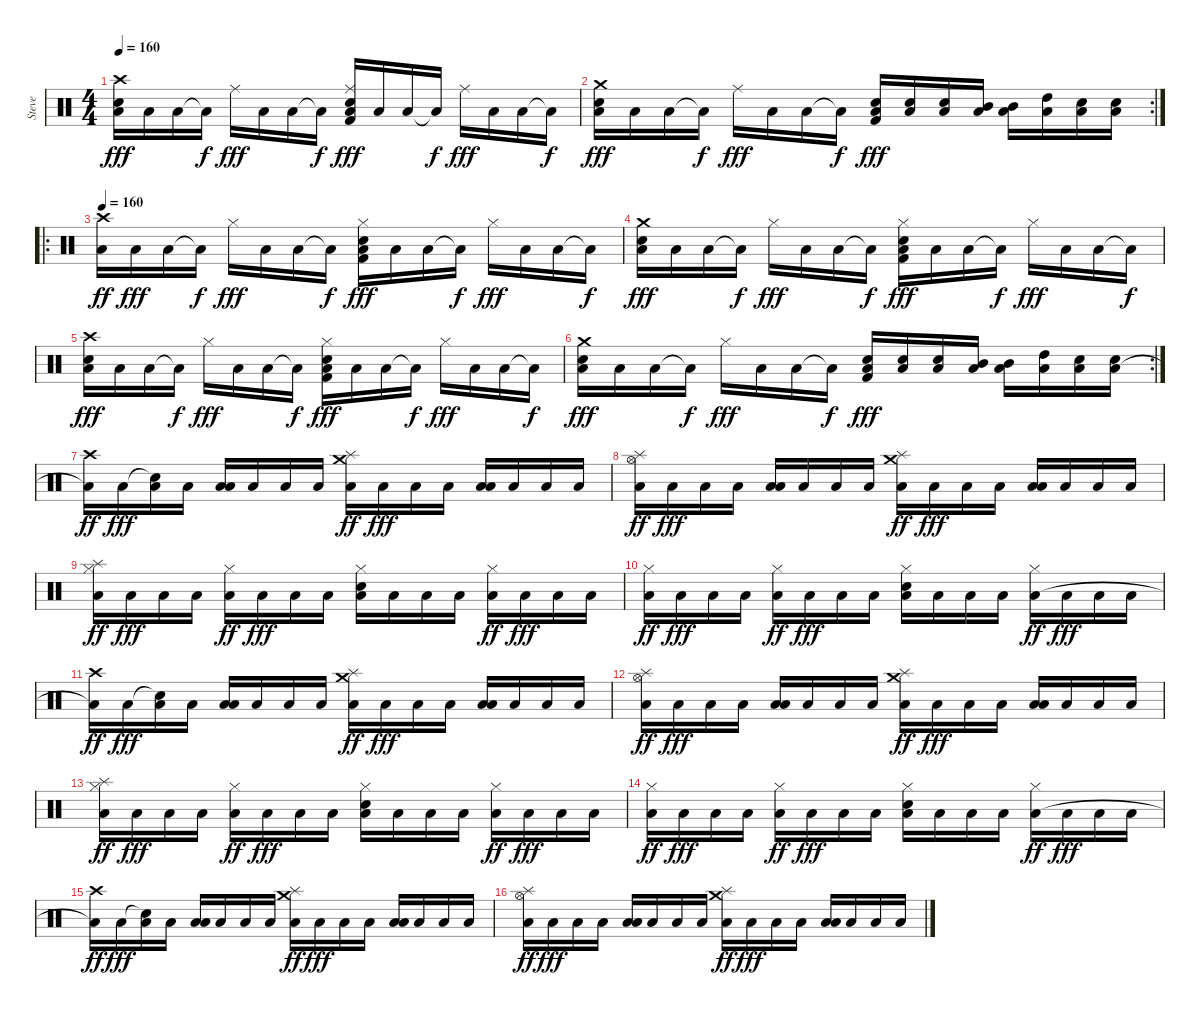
\track ("Steve" "Steve") {instrument percussion}
\staff {score}
\articulation defaults
\ts (4 4)
\tempo 160
\clef neutral
\ks c
("Crash high (hit)" "Electric Snare (hit)" "Low Floor Tom (hit)").16{dy fff} "Low Floor Tom (hit)".16 "Low Floor Tom (hit)".16 "Low Floor Tom (hit)"{t}.16{dy f} "Ride (middle)".16{dy fff} "Low Floor Tom (hit)".16 "Low Floor Tom (hit)".16 "Low Floor Tom (hit)"{t}.16{dy f} ("Electric Snare (hit)" "Kick (hit) 2" "Ride (middle)" "Low Floor Tom (hit)").16{dy fff} "Low Floor Tom (hit)".16 "Low Floor Tom (hit)".16 "Low Floor Tom (hit)"{t}.16{dy f} "Ride (middle)".16{dy fff} "Low Floor Tom (hit)".16 "Low Floor Tom (hit)".16 "Low Floor Tom (hit)"{t}.16{dy f} |
\rc 2
("Crash medium (hit)" "Electric Snare (hit)" "Low Floor Tom (hit)").16{dy fff} "Low Floor Tom (hit)".16 "Low Floor Tom (hit)".16 "Low Floor Tom (hit)"{t}.16{dy f} "Ride (middle)".16{dy fff} "Low Floor Tom (hit)".16 "Low Floor Tom (hit)".16 "Low Floor Tom (hit)"{t}.16{dy f} ("Electric Snare (hit)" "Kick (hit) 2" "Low Floor Tom (hit)").16{dy fff} ("Electric Snare (hit)" "Low Floor Tom (hit)").16 ("Electric Snare (hit)" "Low Floor Tom (hit)").16 ("Mid Tom (hit)" "Low Floor Tom (hit)").16 ("Mid Tom (hit)" "Low Floor Tom (hit)").16 ("High Tom (hit)" "Low Floor Tom (hit)").16 ("Electric Snare (hit)" "Low Floor Tom (hit)").16 ("Electric Snare (hit)" "Low Floor Tom (hit)").16 |
\ro
\tempo 160
("Crash high (hit)" "Low Floor Tom (hit)").16{dy ff} "Low Floor Tom (hit)".16{dy fff} "Low Floor Tom (hit)".16 "Low Floor Tom (hit)"{t}.16{dy f} "Hi-Hat (closed)".16{dy fff} "Low Floor Tom (hit)".16 "Low Floor Tom (hit)".16 "Low Floor Tom (hit)"{t}.16{dy f} ("Electric Snare (hit)" "Kick (hit) 2" "Hi-Hat (closed)" "Low Floor Tom (hit)").16{dy fff} "Low Floor Tom (hit)".16 "Low Floor Tom (hit)".16 "Low Floor Tom (hit)"{t}.16{dy f} "Hi-Hat (closed)".16{dy fff} "Low Floor Tom (hit)".16 "Low Floor Tom (hit)".16 "Low Floor Tom (hit)"{t}.16{dy f} |
("Crash medium (hit)" "Electric Snare (hit)" "Low Floor Tom (hit)").16{dy fff} "Low Floor Tom (hit)".16 "Low Floor Tom (hit)".16 "Low Floor Tom (hit)"{t}.16{dy f} "Hi-Hat (closed)".16{dy fff} "Low Floor Tom (hit)".16 "Low Floor Tom (hit)".16 "Low Floor Tom (hit)"{t}.16{dy f} ("Electric Snare (hit)" "Kick (hit) 2" "Hi-Hat (closed)" "Low Floor Tom (hit)").16{dy fff} "Low Floor Tom (hit)".16 "Low Floor Tom (hit)".16 "Low Floor Tom (hit)"{t}.16{dy f} "Hi-Hat (closed)".16{dy fff} "Low Floor Tom (hit)".16 "Low Floor Tom (hit)".16 "Low Floor Tom (hit)"{t}.16{dy f} |
("Crash high (hit)" "Electric Snare (hit)" "Low Floor Tom (hit)").16{dy fff} "Low Floor Tom (hit)".16 "Low Floor Tom (hit)".16 "Low Floor Tom (hit)"{t}.16{dy f} "Hi-Hat (closed)".16{dy fff} "Low Floor Tom (hit)".16 "Low Floor Tom (hit)".16 "Low Floor Tom (hit)"{t}.16{dy f} ("Electric Snare (hit)" "Kick (hit) 2" "Hi-Hat (closed)" "Low Floor Tom (hit)").16{dy fff} "Low Floor Tom (hit)".16 "Low Floor Tom (hit)".16 "Low Floor Tom (hit)"{t}.16{dy f} "Hi-Hat (closed)".16{dy fff} "Low Floor Tom (hit)".16 "Low Floor Tom (hit)".16 "Low Floor Tom (hit)"{t}.16{dy f} |
\rc 2
("Crash medium (hit)" "Electric Snare (hit)" "Low Floor Tom (hit)").16{dy fff} "Low Floor Tom (hit)".16 "Low Floor Tom (hit)".16 "Low Floor Tom (hit)"{t}.16{dy f} "Hi-Hat (closed)".16{dy fff} "Low Floor Tom (hit)".16 "Low Floor Tom (hit)".16 "Low Floor Tom (hit)"{t}.16{dy f} ("Electric Snare (hit)" "Kick (hit) 2" "Low Floor Tom (hit)").16{dy fff} ("Electric Snare (hit)" "Low Floor Tom (hit)").16 ("Electric Snare (hit)" "Low Floor Tom (hit)").16 ("Mid Tom (hit)" "Low Floor Tom (hit)").16 ("Mid Tom (hit)" "Low Floor Tom (hit)").16 ("High Tom (hit)" "Low Floor Tom (hit)").16 ("Electric Snare (hit)" "Low Floor Tom (hit)").16 ("Electric Snare (hit)" "Low Floor Tom (hit)").16 |
("Crash high (hit)" "Low Floor Tom (hit)"{t}).16{dy ff} "Low Floor Tom (hit)".16{dy fff} ("Snare (hit)"{t} "Low Floor Tom (hit)").16 "Low Floor Tom (hit)".16 ("Low Tom (hit)" "Low Floor Tom (hit)").16 "Low Floor Tom (hit)".16 "Low Floor Tom (hit)".16 "Low Floor Tom (hit)".16 ("Crash medium (hit)" "Splash (hit)" "Low Floor Tom (hit)").16{dy ff} "Low Floor Tom (hit)".16{dy fff} "Low Floor Tom (hit)".16 "Low Floor Tom (hit)".16 ("Low Tom (hit)" "Low Floor Tom (hit)").16 "Low Floor Tom (hit)".16 "Low Floor Tom (hit)".16 "Low Floor Tom (hit)".16 |
("Splash (hit)" "Hi-Hat (open)" "Low Floor Tom (hit)").16{dy ff} "Low Floor Tom (hit)".16{dy fff} "Low Floor Tom (hit)".16 "Low Floor Tom (hit)".16 ("Low Tom (hit)" "Low Floor Tom (hit)").16 "Low Floor Tom (hit)".16 "Low Floor Tom (hit)".16 "Low Floor Tom (hit)".16 ("Crash medium (hit)" "Splash (hit)" "Low Floor Tom (hit)").16{dy ff} "Low Floor Tom (hit)".16{dy fff} "Low Floor Tom (hit)".16 "Low Floor Tom (hit)".16 ("Low Tom (hit)" "Low Floor Tom (hit)").16 "Low Floor Tom (hit)".16 "Low Floor Tom (hit)".16 "Low Floor Tom (hit)".16 |
("Splash (hit)" "Hi-Hat (closed)" "Low Floor Tom (hit)").16{dy ff} "Low Floor Tom (hit)".16{dy fff} "Low Floor Tom (hit)".16 "Low Floor Tom (hit)".16 ("Hi-Hat (closed)" "Low Floor Tom (hit)").16{dy ff} "Low Floor Tom (hit)".16{dy fff} "Low Floor Tom (hit)".16 "Low Floor Tom (hit)".16 ("Electric Snare (hit)" "Hi-Hat (closed)" "Low Floor Tom (hit)").16 "Low Floor Tom (hit)".16 "Low Floor Tom (hit)".16 "Low Floor Tom (hit)".16 ("Hi-Hat (closed)" "Low Floor Tom (hit)").16{dy ff} "Low Floor Tom (hit)".16{dy fff} "Low Floor Tom (hit)".16 "Low Floor Tom (hit)".16 |
("Hi-Hat (closed)" "Low Floor Tom (hit)").16{dy ff} "Low Floor Tom (hit)".16{dy fff} "Low Floor Tom (hit)".16 "Low Floor Tom (hit)".16 ("Hi-Hat (closed)" "Low Floor Tom (hit)").16{dy ff} "Low Floor Tom (hit)".16{dy fff} "Low Floor Tom (hit)".16 "Low Floor Tom (hit)".16 ("Electric Snare (hit)" "Hi-Hat (closed)" "Low Floor Tom (hit)").16 "Low Floor Tom (hit)".16 "Low Floor Tom (hit)".16 "Low Floor Tom (hit)".16 ("Hi-Hat (closed)" "Low Floor Tom (hit)").16{dy ff} "Low Floor Tom (hit)".16{dy fff} "Low Floor Tom (hit)".16 "Low Floor Tom (hit)".16 |
("Crash high (hit)" "Low Floor Tom (hit)"{t}).16{dy ff} "Low Floor Tom (hit)".16{dy fff} ("Snare (hit)"{t} "Low Floor Tom (hit)").16 "Low Floor Tom (hit)".16 ("Low Tom (hit)" "Low Floor Tom (hit)").16 "Low Floor Tom (hit)".16 "Low Floor Tom (hit)".16 "Low Floor Tom (hit)".16 ("Crash medium (hit)" "Splash (hit)" "Low Floor Tom (hit)").16{dy ff} "Low Floor Tom (hit)".16{dy fff} "Low Floor Tom (hit)".16 "Low Floor Tom (hit)".16 ("Low Tom (hit)" "Low Floor Tom (hit)").16 "Low Floor Tom (hit)".16 "Low Floor Tom (hit)".16 "Low Floor Tom (hit)".16 |
("Splash (hit)" "Hi-Hat (open)" "Low Floor Tom (hit)").16{dy ff} "Low Floor Tom (hit)".16{dy fff} "Low Floor Tom (hit)".16 "Low Floor Tom (hit)".16 ("Low Tom (hit)" "Low Floor Tom (hit)").16 "Low Floor Tom (hit)".16 "Low Floor Tom (hit)".16 "Low Floor Tom (hit)".16 ("Crash medium (hit)" "Splash (hit)" "Low Floor Tom (hit)").16{dy ff} "Low Floor Tom (hit)".16{dy fff} "Low Floor Tom (hit)".16 "Low Floor Tom (hit)".16 ("Low Tom (hit)" "Low Floor Tom (hit)").16 "Low Floor Tom (hit)".16 "Low Floor Tom (hit)".16 "Low Floor Tom (hit)".16 |
("Splash (hit)" "Hi-Hat (closed)" "Low Floor Tom (hit)").16{dy ff} "Low Floor Tom (hit)".16{dy fff} "Low Floor Tom (hit)".16 "Low Floor Tom (hit)".16 ("Hi-Hat (closed)" "Low Floor Tom (hit)").16{dy ff} "Low Floor Tom (hit)".16{dy fff} "Low Floor Tom (hit)".16 "Low Floor Tom (hit)".16 ("Electric Snare (hit)" "Hi-Hat (closed)" "Low Floor Tom (hit)").16 "Low Floor Tom (hit)".16 "Low Floor Tom (hit)".16 "Low Floor Tom (hit)".16 ("Hi-Hat (closed)" "Low Floor Tom (hit)").16{dy ff} "Low Floor Tom (hit)".16{dy fff} "Low Floor Tom (hit)".16 "Low Floor Tom (hit)".16 |
("Hi-Hat (closed)" "Low Floor Tom (hit)").16{dy ff} "Low Floor Tom (hit)".16{dy fff} "Low Floor Tom (hit)".16 "Low Floor Tom (hit)".16 ("Hi-Hat (closed)" "Low Floor Tom (hit)").16{dy ff} "Low Floor Tom (hit)".16{dy fff} "Low Floor Tom (hit)".16 "Low Floor Tom (hit)".16 ("Electric Snare (hit)" "Hi-Hat (closed)" "Low Floor Tom (hit)").16 "Low Floor Tom (hit)".16 "Low Floor Tom (hit)".16 "Low Floor Tom (hit)".16 ("Hi-Hat (closed)" "Low Floor Tom (hit)").16{dy ff} "Low Floor Tom (hit)".16{dy fff} "Low Floor Tom (hit)".16 "Low Floor Tom (hit)".16 |
("Crash high (hit)" "Low Floor Tom (hit)"{t}).16{dy ff} "Low Floor Tom (hit)".16{dy fff} ("Snare (hit)"{t} "Low Floor Tom (hit)").16 "Low Floor Tom (hit)".16 ("Low Tom (hit)" "Low Floor Tom (hit)").16 "Low Floor Tom (hit)".16 "Low Floor Tom (hit)".16 "Low Floor Tom (hit)".16 ("Crash medium (hit)" "Splash (hit)" "Low Floor Tom (hit)").16{dy ff} "Low Floor Tom (hit)".16{dy fff} "Low Floor Tom (hit)".16 "Low Floor Tom (hit)".16 ("Low Tom (hit)" "Low Floor Tom (hit)").16 "Low Floor Tom (hit)".16 "Low Floor Tom (hit)".16 "Low Floor Tom (hit)".16 |
("Splash (hit)" "Hi-Hat (open)" "Low Floor Tom (hit)").16{dy ff} "Low Floor Tom (hit)".16{dy fff} "Low Floor Tom (hit)".16 "Low Floor Tom (hit)".16 ("Low Tom (hit)" "Low Floor Tom (hit)").16 "Low Floor Tom (hit)".16 "Low Floor Tom (hit)".16 "Low Floor Tom (hit)".16 ("Crash medium (hit)" "Splash (hit)" "Low Floor Tom (hit)").16{dy ff} "Low Floor Tom (hit)".16{dy fff} "Low Floor Tom (hit)".16 "Low Floor Tom (hit)".16 ("Low Tom (hit)" "Low Floor Tom (hit)").16 "Low Floor Tom (hit)".16 "Low Floor Tom (hit)".16 "Low Floor Tom (hit)".16
